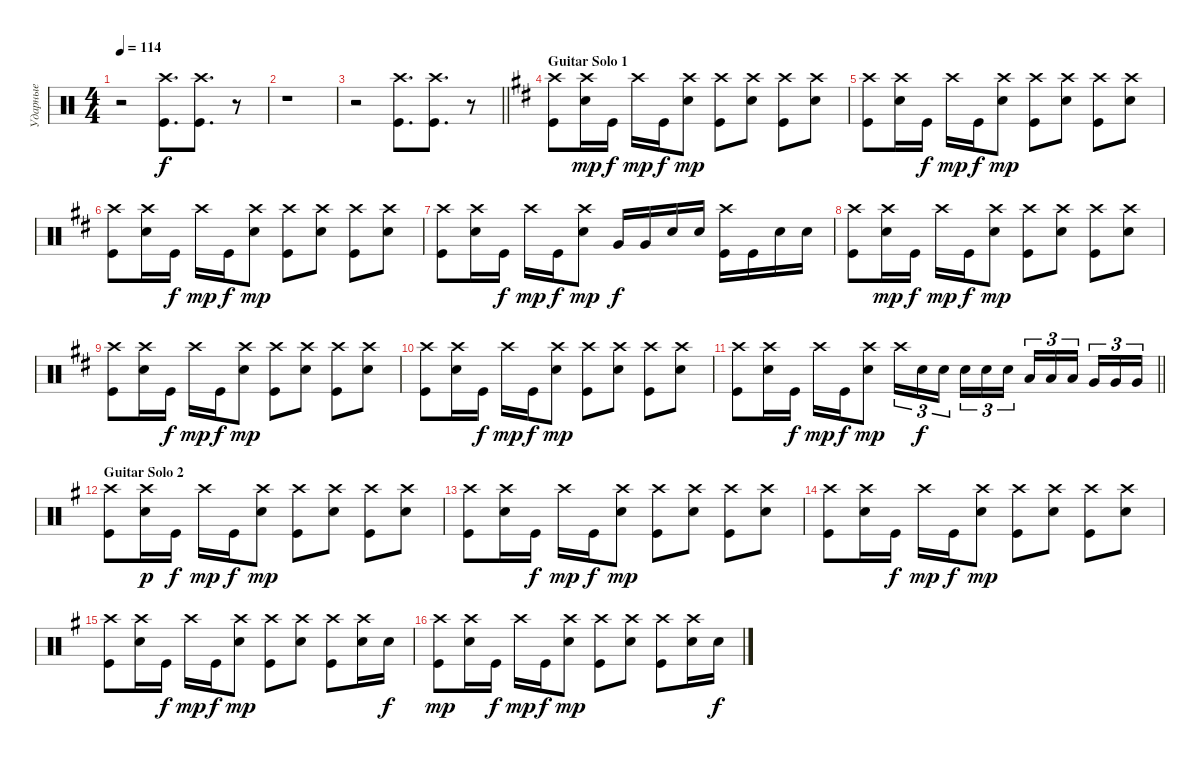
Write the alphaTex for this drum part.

\track ("Ударные" "Ударные") {instrument percussion}
\staff {score}
\articulation defaults
\ts (4 4)
\tempo 114
\clef neutral
\ks aminor
r.2{dy f} ("Crash high (hit)" "Kick (hit)").8{d} ("Crash high (hit)" "Kick (hit)").8{d} r.8 |
r.1 |
\barLineRight lightlight
r.2 ("Crash high (hit)" "Kick (hit)").8{d} ("Crash high (hit)" "Kick (hit)").8{d} r.8 |
\section ("" "Guitar Solo 1")
\ks bminor
("Crash high (hit)" "Kick (hit)").8 ("Crash high (hit)" "Snare (hit) 2").16{dy mp} "Kick (hit)".16{dy f} "Crash high (hit)".16{dy mp} "Kick (hit)".16{dy f} ("Crash high (hit)" "Snare (hit) 2").8{dy mp} ("Kick (hit)" "Crash high (hit)").8 ("Crash high (hit)" "Snare (hit) 2").8 ("Kick (hit)" "Crash high (hit)").8 ("Crash high (hit)" "Snare (hit) 2").8 |
("Crash high (hit)" "Kick (hit)").8 ("Crash high (hit)" "Snare (hit) 2").16 "Kick (hit)".16{dy f} "Crash high (hit)".16{dy mp} "Kick (hit)".16{dy f} ("Crash high (hit)" "Snare (hit) 2").8{dy mp} ("Kick (hit)" "Crash high (hit)").8 ("Crash high (hit)" "Snare (hit) 2").8 ("Kick (hit)" "Crash high (hit)").8 ("Crash high (hit)" "Snare (hit) 2").8 |
("Crash high (hit)" "Kick (hit)").8 ("Crash high (hit)" "Snare (hit) 2").16 "Kick (hit)".16{dy f} "Crash high (hit)".16{dy mp} "Kick (hit)".16{dy f} ("Crash high (hit)" "Snare (hit) 2").8{dy mp} ("Kick (hit)" "Crash high (hit)").8 ("Crash high (hit)" "Snare (hit) 2").8 ("Kick (hit)" "Crash high (hit)").8 ("Crash high (hit)" "Snare (hit) 2").8 |
("Crash high (hit)" "Kick (hit)").8 ("Crash high (hit)" "Snare (hit) 2").16 "Kick (hit)".16{dy f} "Crash high (hit)".16{dy mp} "Kick (hit)".16{dy f} ("Crash high (hit)" "Snare (hit) 2").8{dy mp} "Very Low Tom (hit)".16{dy f} "Very Low Tom (hit)".16 "Snare (hit) 2".16 "Snare (hit) 2".16 ("Kick (hit)" "Crash high (hit)").16 "Kick (hit)".16 "Snare (hit) 2".16 "Snare (hit) 2".16 |
("Crash high (hit)" "Kick (hit)").8 ("Crash high (hit)" "Snare (hit) 2").16{dy mp} "Kick (hit)".16{dy f} "Crash high (hit)".16{dy mp} "Kick (hit)".16{dy f} ("Crash high (hit)" "Snare (hit) 2").8{dy mp} ("Kick (hit)" "Crash high (hit)").8 ("Crash high (hit)" "Snare (hit) 2").8 ("Kick (hit)" "Crash high (hit)").8 ("Crash high (hit)" "Snare (hit) 2").8 |
("Crash high (hit)" "Kick (hit)").8 ("Crash high (hit)" "Snare (hit) 2").16 "Kick (hit)".16{dy f} "Crash high (hit)".16{dy mp} "Kick (hit)".16{dy f} ("Crash high (hit)" "Snare (hit) 2").8{dy mp} ("Kick (hit)" "Crash high (hit)").8 ("Crash high (hit)" "Snare (hit) 2").8 ("Kick (hit)" "Crash high (hit)").8 ("Crash high (hit)" "Snare (hit) 2").8 |
("Crash high (hit)" "Kick (hit)").8 ("Crash high (hit)" "Snare (hit) 2").16 "Kick (hit)".16{dy f} "Crash high (hit)".16{dy mp} "Kick (hit)".16{dy f} ("Crash high (hit)" "Snare (hit) 2").8{dy mp} ("Kick (hit)" "Crash high (hit)").8 ("Crash high (hit)" "Snare (hit) 2").8 ("Kick (hit)" "Crash high (hit)").8 ("Crash high (hit)" "Snare (hit) 2").8 |
\barLineRight lightlight
("Crash high (hit)" "Kick (hit)").8 ("Crash high (hit)" "Snare (hit) 2").16 "Kick (hit)".16{dy f} "Crash high (hit)".16{dy mp} "Kick (hit)".16{dy f} ("Crash high (hit)" "Snare (hit) 2").8{dy mp} "Crash high (hit)".16{tu (3 2)} "Snare (hit) 2".16{tu (3 2) dy f} "Snare (hit) 2".16{tu (3 2) beam splitsecondary} "Snare (hit) 2".16{tu (3 2)} "Snare (hit) 2".16{tu (3 2)} "Snare (hit) 2".16{tu (3 2)} "Low Tom (hit)".16{tu (3 2)} "Low Tom (hit)".16{tu (3 2)} "Low Tom (hit)".16{tu (3 2) beam splitsecondary} "Very Low Tom (hit)".16{tu (3 2)} "Very Low Tom (hit)".16{tu (3 2)} "Very Low Tom (hit)".16{tu (3 2)} |
\section ("" "Guitar Solo 2")
\ks eminor
("Crash high (hit)" "Kick (hit)").8 ("Crash high (hit)" "Snare (hit) 2").16{dy p} "Kick (hit)".16{dy f} "Crash high (hit)".16{dy mp} "Kick (hit)".16{dy f} ("Crash high (hit)" "Snare (hit) 2").8{dy mp} ("Kick (hit)" "Crash high (hit)").8 ("Crash high (hit)" "Snare (hit) 2").8 ("Kick (hit)" "Crash high (hit)").8 ("Crash high (hit)" "Snare (hit) 2").8 |
("Crash high (hit)" "Kick (hit)").8 ("Crash high (hit)" "Snare (hit) 2").16 "Kick (hit)".16{dy f} "Crash high (hit)".16{dy mp} "Kick (hit)".16{dy f} ("Crash high (hit)" "Snare (hit) 2").8{dy mp} ("Kick (hit)" "Crash high (hit)").8 ("Crash high (hit)" "Snare (hit) 2").8 ("Kick (hit)" "Crash high (hit)").8 ("Crash high (hit)" "Snare (hit) 2").8 |
("Crash high (hit)" "Kick (hit)").8 ("Crash high (hit)" "Snare (hit) 2").16 "Kick (hit)".16{dy f} "Crash high (hit)".16{dy mp} "Kick (hit)".16{dy f} ("Crash high (hit)" "Snare (hit) 2").8{dy mp} ("Kick (hit)" "Crash high (hit)").8 ("Crash high (hit)" "Snare (hit) 2").8 ("Kick (hit)" "Crash high (hit)").8 ("Crash high (hit)" "Snare (hit) 2").8 |
("Crash high (hit)" "Kick (hit)").8 ("Crash high (hit)" "Snare (hit) 2").16 "Kick (hit)".16{dy f} "Crash high (hit)".16{dy mp} "Kick (hit)".16{dy f} ("Crash high (hit)" "Snare (hit) 2").8{dy mp} ("Kick (hit)" "Crash high (hit)").8 ("Crash high (hit)" "Snare (hit) 2").8 ("Kick (hit)" "Crash high (hit)").8 ("Crash high (hit)" "Snare (hit) 2").16 "Snare (hit) 2".16{dy f} |
("Crash high (hit)" "Kick (hit)").8{dy mp} ("Crash high (hit)" "Snare (hit) 2").16 "Kick (hit)".16{dy f} "Crash high (hit)".16{dy mp} "Kick (hit)".16{dy f} ("Crash high (hit)" "Snare (hit) 2").8{dy mp} ("Kick (hit)" "Crash high (hit)").8 ("Crash high (hit)" "Snare (hit) 2").8 ("Kick (hit)" "Crash high (hit)").8 ("Crash high (hit)" "Snare (hit) 2").16 "Snare (hit) 2".16{dy f}
